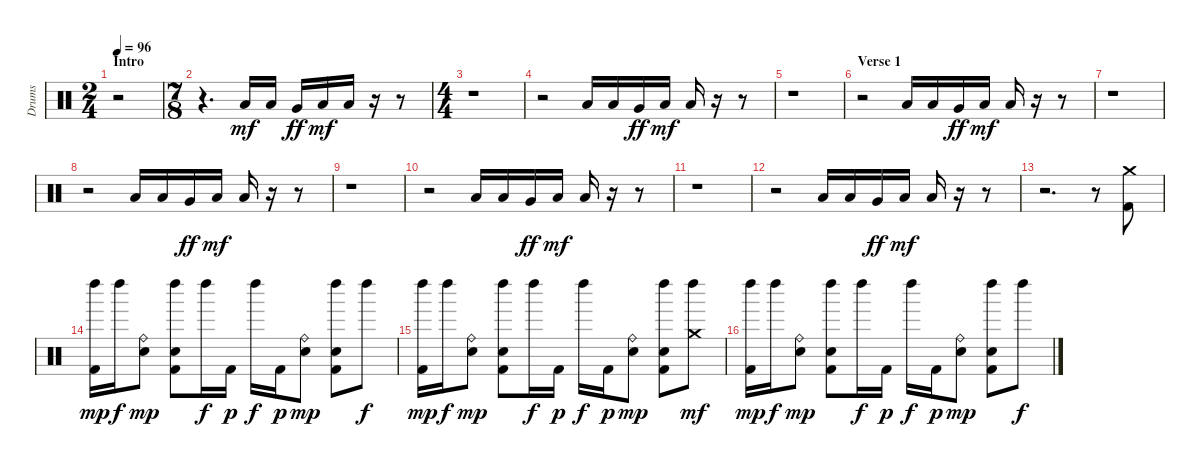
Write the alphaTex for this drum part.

\track ("Drums" "Drums") {instrument percussion}
\staff {score}
\articulation defaults
\ts (2 4)
\section ("" "Intro")
\tempo 96
\clef neutral
\ks c
r.2{dy mf} |
\ts (7 8)
r.4{d} "Low Floor Tom (hit)".16 "Low Floor Tom (hit)".16 "Very Low Tom (hit)".16{dy ff} "Low Floor Tom (hit)".16{dy mf} "Low Floor Tom (hit)".16 r.16 r.8 |
\ts (4 4)
r.1 |
r.2 "Low Floor Tom (hit)".16 "Low Floor Tom (hit)".16 "Very Low Tom (hit)".16{dy ff} "Low Floor Tom (hit)".16{dy mf} "Low Floor Tom (hit)".16 r.16 r.8 |
r.1 |
\section ("" "Verse 1")
r.2 "Low Floor Tom (hit)".16 "Low Floor Tom (hit)".16 "Very Low Tom (hit)".16{dy ff} "Low Floor Tom (hit)".16{dy mf} "Low Floor Tom (hit)".16 r.16 r.8 |
r.1 |
r.2 "Low Floor Tom (hit)".16 "Low Floor Tom (hit)".16 "Very Low Tom (hit)".16{dy ff} "Low Floor Tom (hit)".16{dy mf} "Low Floor Tom (hit)".16 r.16 r.8 |
r.1 |
r.2 "Low Floor Tom (hit)".16 "Low Floor Tom (hit)".16 "Very Low Tom (hit)".16{dy ff} "Low Floor Tom (hit)".16{dy mf} "Low Floor Tom (hit)".16 r.16 r.8 |
r.1 |
r.2 "Low Floor Tom (hit)".16 "Low Floor Tom (hit)".16 "Very Low Tom (hit)".16{dy ff} "Low Floor Tom (hit)".16{dy mf} "Low Floor Tom (hit)".16 r.16 r.8 |
r.2{d} r.8 ("Crash medium (hit)" "Kick (hit) 2").8 |
("Left Maraca (hit)" "Kick (hit) 2").16{dy mp} "Left Maraca (hit)".16{dy f} ("Snare (hit) 2" "Ride (bell)").8{dy mp} ("Left Maraca (hit)" "Electric Snare (hit)" "Kick (hit) 2").8 "Left Maraca (hit)".16{dy f} "Kick (hit) 2".16{dy p} "Left Maraca (hit)".16{dy f} "Kick (hit) 2".16{dy p} ("Snare (hit) 2" "Ride (bell)").8{dy mp} ("Left Maraca (hit)" "Electric Snare (hit)" "Kick (hit) 2").8 "Left Maraca (hit)".8{dy f} |
("Left Maraca (hit)" "Kick (hit) 2").16{dy mp} "Left Maraca (hit)".16{dy f} ("Snare (hit) 2" "Ride (bell)").8{dy mp} ("Left Maraca (hit)" "Electric Snare (hit)" "Kick (hit) 2").8 "Left Maraca (hit)".16{dy f} "Kick (hit) 2".16{dy p} "Left Maraca (hit)".16{dy f} "Kick (hit) 2".16{dy p} ("Snare (hit) 2" "Ride (bell)").8{dy mp} ("Left Maraca (hit)" "Electric Snare (hit)" "Kick (hit) 2").8 ("Crash medium (hit)" "Left Maraca (hit)").8{dy mf} |
("Left Maraca (hit)" "Kick (hit) 2").16{dy mp} "Left Maraca (hit)".16{dy f} ("Snare (hit) 2" "Ride (bell)").8{dy mp} ("Left Maraca (hit)" "Electric Snare (hit)" "Kick (hit) 2").8 "Left Maraca (hit)".16{dy f} "Kick (hit) 2".16{dy p} "Left Maraca (hit)".16{dy f} "Kick (hit) 2".16{dy p} ("Snare (hit) 2" "Ride (bell)").8{dy mp} ("Left Maraca (hit)" "Electric Snare (hit)" "Kick (hit) 2").8 "Left Maraca (hit)".8{dy f}
